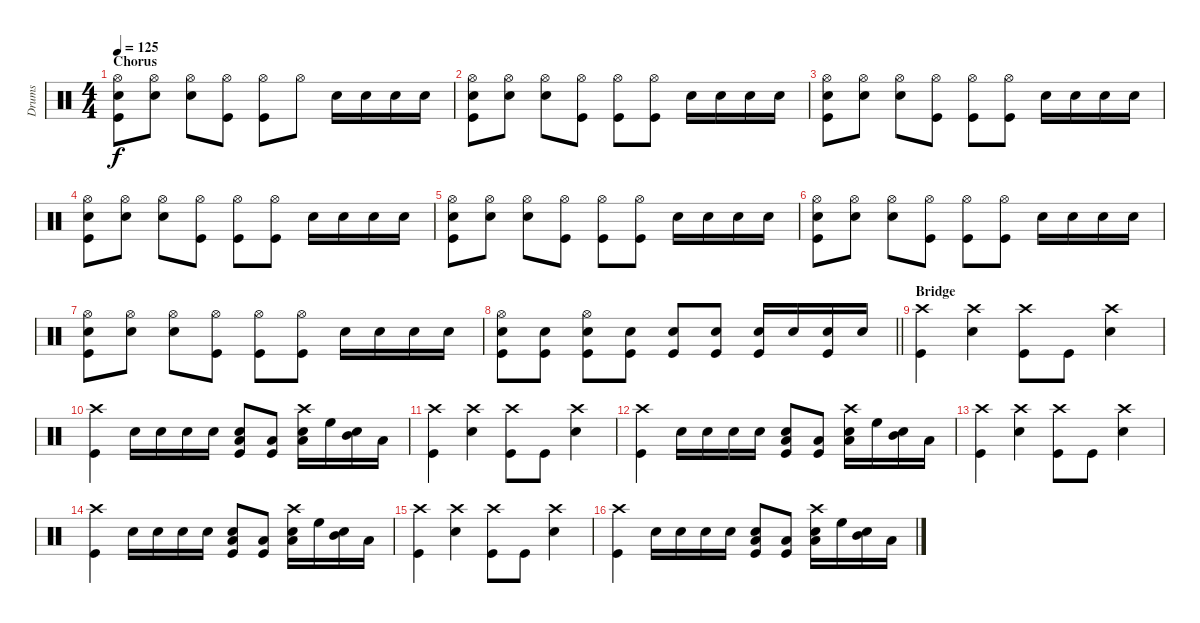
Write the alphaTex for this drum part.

\track ("Drums" "Drums") {instrument percussion}
\staff {score}
\articulation defaults
\ts (4 4)
\section ("" "Chorus")
\tempo 125
\clef neutral
\ks c
("Hi-Hat (open)" "Electric Snare (hit)" "Kick (hit)").8{dy f} ("Hi-Hat (open)" "Electric Snare (hit)").8 ("Hi-Hat (open)" "Electric Snare (hit)").8 ("Hi-Hat (open)" "Kick (hit)").8 ("Hi-Hat (open)" "Kick (hit)").8 "Hi-Hat (open)".8 "Electric Snare (hit)".16 "Electric Snare (hit)".16 "Electric Snare (hit)".16 "Electric Snare (hit)".16 |
("Hi-Hat (open)" "Electric Snare (hit)" "Kick (hit)").8 ("Hi-Hat (open)" "Electric Snare (hit)").8 ("Hi-Hat (open)" "Electric Snare (hit)").8 ("Hi-Hat (open)" "Kick (hit)").8 ("Hi-Hat (open)" "Kick (hit)").8 ("Hi-Hat (open)" "Kick (hit)").8 "Electric Snare (hit)".16 "Electric Snare (hit)".16 "Electric Snare (hit)".16 "Electric Snare (hit)".16 |
("Hi-Hat (open)" "Electric Snare (hit)" "Kick (hit)").8 ("Hi-Hat (open)" "Electric Snare (hit)").8 ("Hi-Hat (open)" "Electric Snare (hit)").8 ("Hi-Hat (open)" "Kick (hit)").8 ("Hi-Hat (open)" "Kick (hit)").8 ("Hi-Hat (open)" "Kick (hit)").8 "Electric Snare (hit)".16 "Electric Snare (hit)".16 "Electric Snare (hit)".16 "Electric Snare (hit)".16 |
("Hi-Hat (open)" "Electric Snare (hit)" "Kick (hit)").8 ("Hi-Hat (open)" "Electric Snare (hit)").8 ("Hi-Hat (open)" "Electric Snare (hit)").8 ("Hi-Hat (open)" "Kick (hit)").8 ("Hi-Hat (open)" "Kick (hit)").8 ("Hi-Hat (open)" "Kick (hit)").8 "Electric Snare (hit)".16 "Electric Snare (hit)".16 "Electric Snare (hit)".16 "Electric Snare (hit)".16 |
("Hi-Hat (open)" "Electric Snare (hit)" "Kick (hit)").8 ("Hi-Hat (open)" "Electric Snare (hit)").8 ("Hi-Hat (open)" "Electric Snare (hit)").8 ("Hi-Hat (open)" "Kick (hit)").8 ("Hi-Hat (open)" "Kick (hit)").8 ("Hi-Hat (open)" "Kick (hit)").8 "Electric Snare (hit)".16 "Electric Snare (hit)".16 "Electric Snare (hit)".16 "Electric Snare (hit)".16 |
("Hi-Hat (open)" "Electric Snare (hit)" "Kick (hit)").8 ("Hi-Hat (open)" "Electric Snare (hit)").8 ("Hi-Hat (open)" "Electric Snare (hit)").8 ("Hi-Hat (open)" "Kick (hit)").8 ("Hi-Hat (open)" "Kick (hit)").8 ("Hi-Hat (open)" "Kick (hit)").8 "Electric Snare (hit)".16 "Electric Snare (hit)".16 "Electric Snare (hit)".16 "Electric Snare (hit)".16 |
("Hi-Hat (open)" "Electric Snare (hit)" "Kick (hit)").8 ("Hi-Hat (open)" "Electric Snare (hit)").8 ("Hi-Hat (open)" "Electric Snare (hit)").8 ("Hi-Hat (open)" "Kick (hit)").8 ("Hi-Hat (open)" "Kick (hit)").8 ("Hi-Hat (open)" "Kick (hit)").8 "Electric Snare (hit)".16 "Electric Snare (hit)".16 "Electric Snare (hit)".16 "Electric Snare (hit)".16 |
\barLineRight lightlight
("Hi-Hat (open)" "Electric Snare (hit)" "Kick (hit)").8 ("Electric Snare (hit)" "Kick (hit)").8 ("Hi-Hat (open)" "Electric Snare (hit)" "Kick (hit)").8 ("Electric Snare (hit)" "Kick (hit)").8 ("Electric Snare (hit)" "Kick (hit)").8 ("Electric Snare (hit)" "Kick (hit)").8 ("Electric Snare (hit)" "Kick (hit)").16 "Electric Snare (hit)".16 ("Electric Snare (hit)" "Kick (hit)").16 "Electric Snare (hit)".16 |
\section ("" "Bridge")
("Crash high (hit)" "Kick (hit)").4 ("Crash high (hit)" "Electric Snare (hit)").4 ("Crash high (hit)" "Kick (hit)").8 "Kick (hit)".8 ("Crash high (hit)" "Electric Snare (hit)").4 |
("Crash high (hit)" "Kick (hit)").4 "Electric Snare (hit)".16 "Electric Snare (hit)".16 "Electric Snare (hit)".16 "Electric Snare (hit)".16 ("Low Tom (hit)" "Electric Snare (hit)" "Kick (hit)").8 ("Low Tom (hit)" "Kick (hit)").8 ("Crash high (hit)" "Low Tom (hit)" "Electric Snare (hit)").16 "High Floor Tom (hit)".16 ("Mid Tom (hit)" "Electric Snare (hit)").16 "Low Tom (hit)".16 |
("Crash high (hit)" "Kick (hit)").4 ("Crash high (hit)" "Electric Snare (hit)").4 ("Crash high (hit)" "Kick (hit)").8 "Kick (hit)".8 ("Crash high (hit)" "Electric Snare (hit)").4 |
("Crash high (hit)" "Kick (hit)").4 "Electric Snare (hit)".16 "Electric Snare (hit)".16 "Electric Snare (hit)".16 "Electric Snare (hit)".16 ("Low Tom (hit)" "Electric Snare (hit)" "Kick (hit)").8 ("Low Tom (hit)" "Kick (hit)").8 ("Crash high (hit)" "Low Tom (hit)" "Electric Snare (hit)").16 "High Floor Tom (hit)".16 ("Mid Tom (hit)" "Electric Snare (hit)").16 "Low Tom (hit)".16 |
("Crash high (hit)" "Kick (hit)").4 ("Crash high (hit)" "Electric Snare (hit)").4 ("Crash high (hit)" "Kick (hit)").8 "Kick (hit)".8 ("Crash high (hit)" "Electric Snare (hit)").4 |
("Crash high (hit)" "Kick (hit)").4 "Electric Snare (hit)".16 "Electric Snare (hit)".16 "Electric Snare (hit)".16 "Electric Snare (hit)".16 ("Low Tom (hit)" "Electric Snare (hit)" "Kick (hit)").8 ("Low Tom (hit)" "Kick (hit)").8 ("Crash high (hit)" "Low Tom (hit)" "Electric Snare (hit)").16 "High Floor Tom (hit)".16 ("Mid Tom (hit)" "Electric Snare (hit)").16 "Low Tom (hit)".16 |
("Crash high (hit)" "Kick (hit)").4 ("Crash high (hit)" "Electric Snare (hit)").4 ("Crash high (hit)" "Kick (hit)").8 "Kick (hit)".8 ("Crash high (hit)" "Electric Snare (hit)").4 |
("Crash high (hit)" "Kick (hit)").4 "Electric Snare (hit)".16 "Electric Snare (hit)".16 "Electric Snare (hit)".16 "Electric Snare (hit)".16 ("Low Tom (hit)" "Electric Snare (hit)" "Kick (hit)").8 ("Low Tom (hit)" "Kick (hit)").8 ("Crash high (hit)" "Low Tom (hit)" "Electric Snare (hit)").16 "High Floor Tom (hit)".16 ("Mid Tom (hit)" "Electric Snare (hit)").16 "Low Tom (hit)".16
